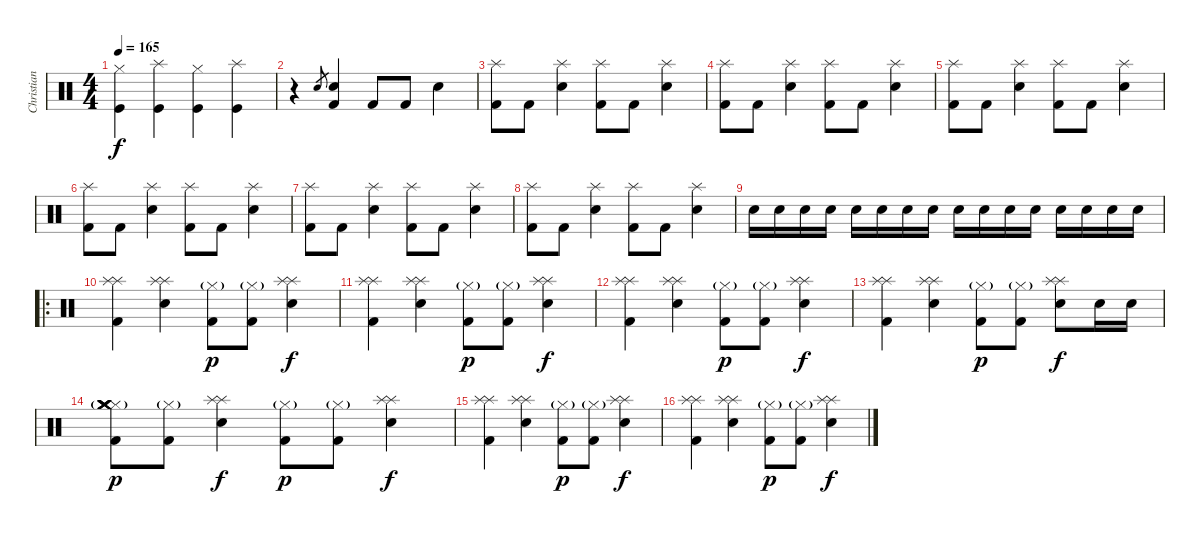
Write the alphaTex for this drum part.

\track ("Christian Batteria" "Christian ") {instrument percussion}
\staff {score}
\articulation defaults
\ts (4 4)
\tempo 165
\clef neutral
\ks c
("Hi-Hat (closed)" "Kick (hit)").4{dy f} ("Splash (hit)" "Kick (hit)").4 ("Hi-Hat (closed)" "Kick (hit)").4 ("Splash (hit)" "Kick (hit)").4 |
r.4 "Snare (hit) 2".8{gr} ("Snare (hit) 2" "Kick (hit) 2").4 "Kick (hit) 2".8 "Kick (hit) 2".8 "Snare (hit) 2".4 |
("Splash (hit)" "Kick (hit) 2").8 "Kick (hit) 2".8 ("Splash (hit)" "Snare (hit) 2").4 ("Splash (hit)" "Kick (hit) 2").8 "Kick (hit) 2".8 ("Splash (hit)" "Snare (hit) 2").4 |
("Splash (hit)" "Kick (hit) 2").8 "Kick (hit) 2".8 ("Splash (hit)" "Snare (hit) 2").4 ("Splash (hit)" "Kick (hit) 2").8 "Kick (hit) 2".8 ("Splash (hit)" "Snare (hit) 2").4 |
("Splash (hit)" "Kick (hit) 2").8 "Kick (hit) 2".8 ("Splash (hit)" "Snare (hit) 2").4 ("Splash (hit)" "Kick (hit) 2").8 "Kick (hit) 2".8 ("Splash (hit)" "Snare (hit) 2").4 |
("Splash (hit)" "Kick (hit) 2").8 "Kick (hit) 2".8 ("Splash (hit)" "Snare (hit) 2").4 ("Splash (hit)" "Kick (hit) 2").8 "Kick (hit) 2".8 ("Splash (hit)" "Snare (hit) 2").4 |
("Splash (hit)" "Kick (hit) 2").8 "Kick (hit) 2".8 ("Splash (hit)" "Snare (hit) 2").4 ("Splash (hit)" "Kick (hit) 2").8 "Kick (hit) 2".8 ("Splash (hit)" "Snare (hit) 2").4 |
("Splash (hit)" "Kick (hit) 2").8 "Kick (hit) 2".8 ("Splash (hit)" "Snare (hit) 2").4 ("Splash (hit)" "Kick (hit) 2").8 "Kick (hit) 2".8 ("Splash (hit)" "Snare (hit) 2").4 |
"Electric Snare (hit)".16 "Electric Snare (hit)".16 "Electric Snare (hit)".16 "Electric Snare (hit)".16 "Snare (hit) 2".16 "Snare (hit) 2".16 "Snare (hit) 2".16 "Snare (hit) 2".16 "Electric Snare (hit)".16 "Electric Snare (hit)".16 "Electric Snare (hit)".16 "Electric Snare (hit)".16 "Electric Snare (hit)".16 "Electric Snare (hit)".16 "Electric Snare (hit)".16 "Electric Snare (hit)".16 |
\ro
("Splash (hit)" "Splash (hit)" "Kick (hit) 2").4 ("Splash (hit)" "Splash (hit)" "Snare (hit) 2").4 ("Hi-Hat (closed)"{g} "Kick (hit) 2").8{dy p} ("Hi-Hat (closed)"{g} "Kick (hit) 2").8 ("Splash (hit)" "Splash (hit)" "Snare (hit) 2").4{dy f} |
("Splash (hit)" "Splash (hit)" "Kick (hit) 2").4 ("Splash (hit)" "Splash (hit)" "Snare (hit) 2").4 ("Hi-Hat (closed)"{g} "Kick (hit) 2").8{dy p} ("Hi-Hat (closed)"{g} "Kick (hit) 2").8 ("Splash (hit)" "Splash (hit)" "Snare (hit) 2").4{dy f} |
("Splash (hit)" "Splash (hit)" "Kick (hit) 2").4 ("Splash (hit)" "Splash (hit)" "Snare (hit) 2").4 ("Hi-Hat (closed)"{g} "Kick (hit) 2").8{dy p} ("Hi-Hat (closed)"{g} "Kick (hit) 2").8 ("Splash (hit)" "Splash (hit)" "Snare (hit) 2").4{dy f} |
("Splash (hit)" "Splash (hit)" "Kick (hit) 2").4 ("Splash (hit)" "Splash (hit)" "Snare (hit) 2").4 ("Hi-Hat (closed)"{g} "Kick (hit) 2").8{dy p} ("Hi-Hat (closed)"{g} "Kick (hit) 2").8 ("Splash (hit)" "Splash (hit)" "Snare (hit) 2").8{dy f} "Electric Snare (hit)".16 "Electric Snare (hit)".16 |
("Hi-Hat (closed)"{g} "Crash medium (hit)" "Crash medium (hit)" "Crash medium (hit)" "Crash medium (hit)" "Kick (hit) 2").8{dy p} ("Hi-Hat (closed)"{g} "Kick (hit) 2").8 ("Splash (hit)" "Splash (hit)" "Snare (hit) 2").4{dy f} ("Hi-Hat (closed)"{g} "Kick (hit) 2").8{dy p} ("Hi-Hat (closed)"{g} "Kick (hit) 2").8 ("Splash (hit)" "Splash (hit)" "Snare (hit) 2").4{dy f} |
("Splash (hit)" "Splash (hit)" "Kick (hit) 2").4 ("Splash (hit)" "Splash (hit)" "Snare (hit) 2").4 ("Hi-Hat (closed)"{g} "Kick (hit) 2").8{dy p} ("Hi-Hat (closed)"{g} "Kick (hit) 2").8 ("Splash (hit)" "Splash (hit)" "Snare (hit) 2").4{dy f} |
("Splash (hit)" "Splash (hit)" "Kick (hit) 2").4 ("Splash (hit)" "Splash (hit)" "Snare (hit) 2").4 ("Hi-Hat (closed)"{g} "Kick (hit) 2").8{dy p} ("Hi-Hat (closed)"{g} "Kick (hit) 2").8 ("Splash (hit)" "Splash (hit)" "Snare (hit) 2").4{dy f}
